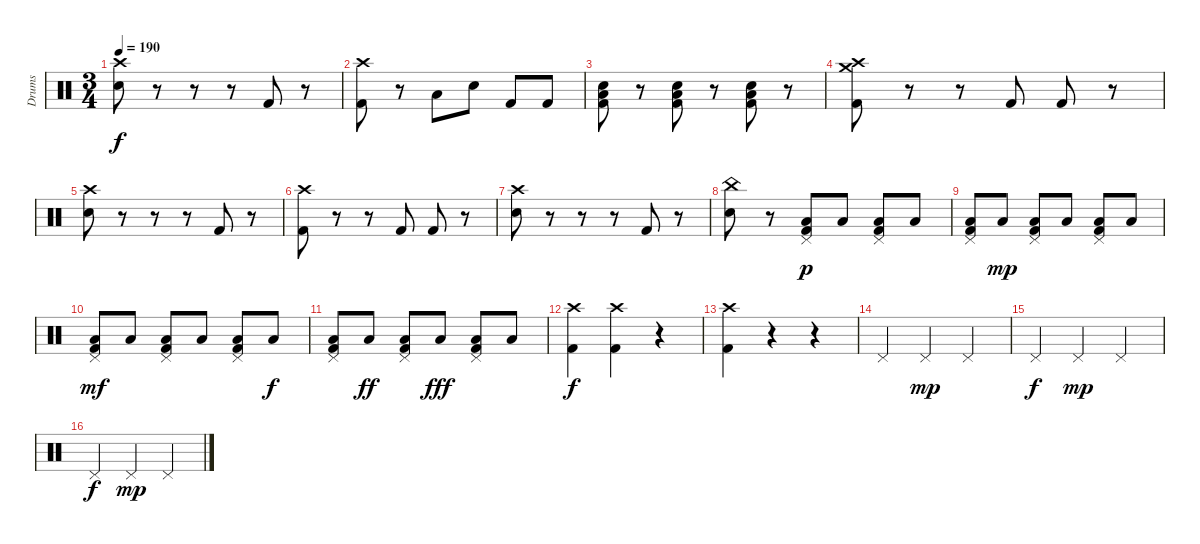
\track ("Drums" "Drums") {instrument percussion}
\staff {score}
\articulation defaults
\ts (3 4)
\tempo 190
\clef neutral
\ks c
("Crash high (hit)" "Electric Snare (hit)").8{dy f} r.8 r.8 r.8 "Kick (hit) 2".8 r.8 |
("Crash high (hit)" "Kick (hit) 2").8 r.8 "Low Floor Tom (hit)".8 "Electric Snare (hit)".8 "Kick (hit) 2".8 "Kick (hit) 2".8 |
("Low Floor Tom (hit)" "Electric Snare (hit)" "Kick (hit) 2").8 r.8 ("Low Floor Tom (hit)" "Electric Snare (hit)" "Kick (hit) 2").8 r.8 ("Low Floor Tom (hit)" "Electric Snare (hit)" "Kick (hit) 2").8 r.8 |
("Crash medium (hit)" "Crash high (hit)" "Kick (hit) 2").8 r.8 r.8 "Kick (hit) 2".8 "Kick (hit) 2".8 r.8 |
("Crash high (hit)" "Electric Snare (hit)").8 r.8 r.8 r.8 "Kick (hit) 2".8 r.8 |
("Crash high (hit)" "Kick (hit) 2").8 r.8 r.8 "Kick (hit) 2".8 "Kick (hit) 2".8 r.8 |
("Crash high (hit)" "Electric Snare (hit)").8 r.8 r.8 r.8 "Kick (hit) 2".8 r.8 |
("China (hit)" "Electric Snare (hit)").8 r.8 ("Pedal Hi-Hat (hit)" "Low Floor Tom (hit)" "Kick (hit) 2").8{dy p} "Low Floor Tom (hit)".8 ("Pedal Hi-Hat (hit)" "Low Floor Tom (hit)" "Kick (hit) 2").8 "Low Floor Tom (hit)".8 |
("Pedal Hi-Hat (hit)" "Low Floor Tom (hit)" "Kick (hit) 2").8 "Low Floor Tom (hit)".8{dy mp} ("Pedal Hi-Hat (hit)" "Low Floor Tom (hit)" "Kick (hit) 2").8 "Low Floor Tom (hit)".8 ("Pedal Hi-Hat (hit)" "Low Floor Tom (hit)" "Kick (hit) 2").8 "Low Floor Tom (hit)".8 |
("Pedal Hi-Hat (hit)" "Low Floor Tom (hit)" "Kick (hit) 2").8{dy mf} "Low Floor Tom (hit)".8 ("Pedal Hi-Hat (hit)" "Low Floor Tom (hit)" "Kick (hit) 2").8 "Low Floor Tom (hit)".8 ("Pedal Hi-Hat (hit)" "Low Floor Tom (hit)" "Kick (hit) 2").8 "Low Floor Tom (hit)".8{dy f} |
("Pedal Hi-Hat (hit)" "Low Floor Tom (hit)" "Kick (hit) 2").8 "Low Floor Tom (hit)".8{dy ff} ("Pedal Hi-Hat (hit)" "Low Floor Tom (hit)" "Kick (hit) 2").8 "Low Floor Tom (hit)".8{dy fff} ("Pedal Hi-Hat (hit)" "Low Floor Tom (hit)" "Kick (hit) 2").8 "Low Floor Tom (hit)".8 |
("Crash high (hit)" "Kick (hit) 2").4{dy f} ("Crash high (hit)" "Kick (hit) 2").4 r.4 |
("Crash high (hit)" "Kick (hit) 2").4 r.4 r.4 |
"Pedal Hi-Hat (hit)".4 "Pedal Hi-Hat (hit)".4{dy mp} "Pedal Hi-Hat (hit)".4 |
"Pedal Hi-Hat (hit)".4{dy f} "Pedal Hi-Hat (hit)".4{dy mp} "Pedal Hi-Hat (hit)".4 |
"Pedal Hi-Hat (hit)".4{dy f} "Pedal Hi-Hat (hit)".4{dy mp} "Pedal Hi-Hat (hit)".4
